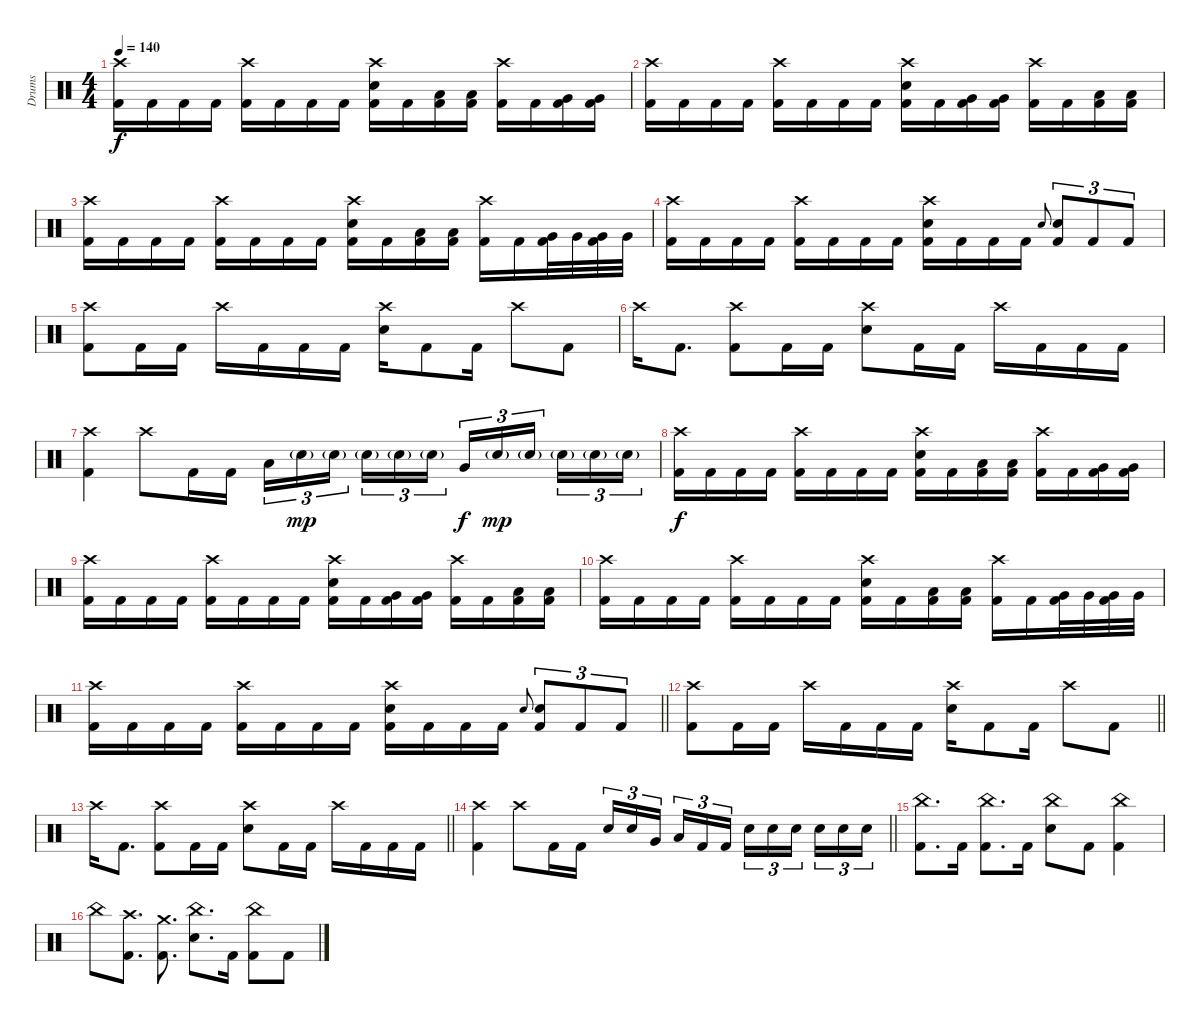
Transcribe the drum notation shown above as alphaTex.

\track ("Drums" "Drums") {instrument percussion}
\staff {score}
\articulation defaults
\ts (4 4)
\tempo 140
\clef neutral
\ks c
("Crash high (hit)" "Kick (hit) 2").16{dy f} "Kick (hit) 2".16 "Kick (hit) 2".16 "Kick (hit) 2".16 ("Crash high (hit)" "Kick (hit) 2").16 "Kick (hit) 2".16 "Kick (hit) 2".16 "Kick (hit) 2".16 ("Crash high (hit)" "Electric Snare (hit)" "Kick (hit) 2").16 "Kick (hit) 2".16 ("Low Tom (hit)" "Kick (hit) 2").16 ("Low Tom (hit)" "Kick (hit) 2").16 ("Crash high (hit)" "Kick (hit) 2").16 "Kick (hit) 2".16 ("Very Low Tom (hit)" "Kick (hit) 2").16 ("Very Low Tom (hit)" "Kick (hit) 2").16 |
("Crash high (hit)" "Kick (hit) 2").16 "Kick (hit) 2".16 "Kick (hit) 2".16 "Kick (hit) 2".16 ("Crash high (hit)" "Kick (hit) 2").16 "Kick (hit) 2".16 "Kick (hit) 2".16 "Kick (hit) 2".16 ("Crash high (hit)" "Electric Snare (hit)" "Kick (hit) 2").16 "Kick (hit) 2".16 ("Very Low Tom (hit)" "Kick (hit) 2").16 ("Very Low Tom (hit)" "Kick (hit) 2").16 ("Crash high (hit)" "Kick (hit) 2").16 "Kick (hit) 2".16 ("Low Floor Tom (hit)" "Kick (hit) 2").16 ("Low Floor Tom (hit)" "Kick (hit) 2").16 |
("Crash high (hit)" "Kick (hit) 2").16 "Kick (hit) 2".16 "Kick (hit) 2".16 "Kick (hit) 2".16 ("Crash high (hit)" "Kick (hit) 2").16 "Kick (hit) 2".16 "Kick (hit) 2".16 "Kick (hit) 2".16 ("Crash high (hit)" "Electric Snare (hit)" "Kick (hit) 2").16 "Kick (hit) 2".16 ("Low Tom (hit)" "Kick (hit) 2").16 ("Low Tom (hit)" "Kick (hit) 2").16 ("Crash high (hit)" "Kick (hit) 2").16 "Kick (hit) 2".16 ("Very Low Tom (hit)" "Kick (hit) 2").32 "Very Low Tom (hit)".32 ("Very Low Tom (hit)" "Kick (hit) 2").32 "Very Low Tom (hit)".32 |
("Crash high (hit)" "Kick (hit) 2").16 "Kick (hit) 2".16 "Kick (hit) 2".16 "Kick (hit) 2".16 ("Crash high (hit)" "Kick (hit) 2").16 "Kick (hit) 2".16 "Kick (hit) 2".16 "Kick (hit) 2".16 ("Crash high (hit)" "Electric Snare (hit)" "Kick (hit) 2").16 "Kick (hit) 2".16 "Kick (hit) 2".16 "Kick (hit) 2".16 "Electric Snare (hit)".8{gr onbeat} ("Electric Snare (hit)" "Kick (hit) 2").8{tu (3 2)} "Kick (hit) 2".8{tu (3 2)} "Kick (hit) 2".8{tu (3 2)} |
("Crash high (hit)" "Kick (hit) 2").8 "Kick (hit) 2".16 "Kick (hit) 2".16 "Crash high (hit)".16 "Kick (hit) 2".16 "Kick (hit) 2".16 "Kick (hit) 2".16 ("Crash high (hit)" "Electric Snare (hit)").16 "Kick (hit) 2".8 "Kick (hit) 2".16 "Crash high (hit)".8 "Kick (hit) 2".8 |
"Crash high (hit)".16 "Kick (hit) 2".8{d} ("Crash high (hit)" "Kick (hit) 2").8 "Kick (hit) 2".16 "Kick (hit) 2".16 ("Crash high (hit)" "Electric Snare (hit)").8 "Kick (hit) 2".16 "Kick (hit) 2".16 "Crash high (hit)".16 "Kick (hit) 2".16 "Kick (hit) 2".16 "Kick (hit) 2".16 |
("Crash high (hit)" "Kick (hit) 2").4 "Crash high (hit)".8 "Kick (hit) 2".16 "Kick (hit) 2".16 "Low Tom (hit)".16{tu (3 2)} "Electric Snare (hit)"{g}.16{tu (3 2) dy mp} "Electric Snare (hit)"{g}.16{tu (3 2) beam splitsecondary} "Electric Snare (hit)"{g}.16{tu (3 2)} "Electric Snare (hit)"{g}.16{tu (3 2)} "Electric Snare (hit)"{g}.16{tu (3 2)} "Very Low Tom (hit)".16{tu (3 2) dy f} "Electric Snare (hit)"{g}.16{tu (3 2) dy mp} "Electric Snare (hit)"{g}.16{tu (3 2) beam splitsecondary} "Electric Snare (hit)"{g}.16{tu (3 2)} "Electric Snare (hit)"{g}.16{tu (3 2)} "Electric Snare (hit)"{g}.16{tu (3 2)} |
("Crash high (hit)" "Kick (hit) 2").16{dy f} "Kick (hit) 2".16 "Kick (hit) 2".16 "Kick (hit) 2".16 ("Crash high (hit)" "Kick (hit) 2").16 "Kick (hit) 2".16 "Kick (hit) 2".16 "Kick (hit) 2".16 ("Crash high (hit)" "Electric Snare (hit)" "Kick (hit) 2").16 "Kick (hit) 2".16 ("Low Tom (hit)" "Kick (hit) 2").16 ("Low Tom (hit)" "Kick (hit) 2").16 ("Crash high (hit)" "Kick (hit) 2").16 "Kick (hit) 2".16 ("Very Low Tom (hit)" "Kick (hit) 2").16 ("Very Low Tom (hit)" "Kick (hit) 2").16 |
("Crash high (hit)" "Kick (hit) 2").16 "Kick (hit) 2".16 "Kick (hit) 2".16 "Kick (hit) 2".16 ("Crash high (hit)" "Kick (hit) 2").16 "Kick (hit) 2".16 "Kick (hit) 2".16 "Kick (hit) 2".16 ("Crash high (hit)" "Electric Snare (hit)" "Kick (hit) 2").16 "Kick (hit) 2".16 ("Very Low Tom (hit)" "Kick (hit) 2").16 ("Very Low Tom (hit)" "Kick (hit) 2").16 ("Crash high (hit)" "Kick (hit) 2").16 "Kick (hit) 2".16 ("Low Floor Tom (hit)" "Kick (hit) 2").16 ("Low Floor Tom (hit)" "Kick (hit) 2").16 |
("Crash high (hit)" "Kick (hit) 2").16 "Kick (hit) 2".16 "Kick (hit) 2".16 "Kick (hit) 2".16 ("Crash high (hit)" "Kick (hit) 2").16 "Kick (hit) 2".16 "Kick (hit) 2".16 "Kick (hit) 2".16 ("Crash high (hit)" "Electric Snare (hit)" "Kick (hit) 2").16 "Kick (hit) 2".16 ("Low Tom (hit)" "Kick (hit) 2").16 ("Low Tom (hit)" "Kick (hit) 2").16 ("Crash high (hit)" "Kick (hit) 2").16 "Kick (hit) 2".16 ("Very Low Tom (hit)" "Kick (hit) 2").32 "Very Low Tom (hit)".32 ("Very Low Tom (hit)" "Kick (hit) 2").32 "Very Low Tom (hit)".32 |
\barLineRight lightlight
("Crash high (hit)" "Kick (hit) 2").16 "Kick (hit) 2".16 "Kick (hit) 2".16 "Kick (hit) 2".16 ("Crash high (hit)" "Kick (hit) 2").16 "Kick (hit) 2".16 "Kick (hit) 2".16 "Kick (hit) 2".16 ("Crash high (hit)" "Electric Snare (hit)" "Kick (hit) 2").16 "Kick (hit) 2".16 "Kick (hit) 2".16 "Kick (hit) 2".16 "Electric Snare (hit)".8{gr onbeat} ("Electric Snare (hit)" "Kick (hit) 2").8{tu (3 2)} "Kick (hit) 2".8{tu (3 2)} "Kick (hit) 2".8{tu (3 2)} |
\barLineRight lightlight
("Crash high (hit)" "Kick (hit) 2").8 "Kick (hit) 2".16 "Kick (hit) 2".16 "Crash high (hit)".16 "Kick (hit) 2".16 "Kick (hit) 2".16 "Kick (hit) 2".16 ("Crash high (hit)" "Electric Snare (hit)").16 "Kick (hit) 2".8 "Kick (hit) 2".16 "Crash high (hit)".8 "Kick (hit) 2".8 |
\barLineRight lightlight "Crash high (hit)".16 "Kick (hit) 2".8{d}
("Crash high (hit)" "Kick (hit) 2").8 "Kick (hit) 2".16 "Kick (hit) 2".16 ("Crash high (hit)" "Electric Snare (hit)").8 "Kick (hit) 2".16 "Kick (hit) 2".16 "Crash high (hit)".16 "Kick (hit) 2".16 "Kick (hit) 2".16 "Kick (hit) 2".16 |
\barLineRight lightlight
("Crash high (hit)" "Kick (hit) 2").4 "Crash high (hit)".8 "Kick (hit) 2".16 "Kick (hit) 2".16 "Electric Snare (hit)".16{tu (3 2)} "Electric Snare (hit)".16{tu (3 2)} "Very Low Tom (hit)".16{tu (3 2) beam splitsecondary} "Low Tom (hit)".16{tu (3 2)} "Kick (hit) 2".16{tu (3 2)} "Kick (hit) 2".16{tu (3 2)} "Electric Snare (hit)".16{tu (3 2)} "Electric Snare (hit)".16{tu (3 2)} "Electric Snare (hit)".16{tu (3 2) beam splitsecondary} "Electric Snare (hit)".16{tu (3 2)} "Electric Snare (hit)".16{tu (3 2)} "Electric Snare (hit)".16{tu (3 2)} |
("China (hit)" "Kick (hit) 2").8{d} "Kick (hit) 2".16 ("China (hit)" "Kick (hit) 2").8{d} "Kick (hit) 2".16 ("China (hit)" "Electric Snare (hit)").8 "Kick (hit) 2".8 ("China (hit)" "Kick (hit) 2").4 |
"China (hit)".8 ("Crash high (hit)" "Kick (hit) 2").8{d} ("Crash medium (hit)" "Kick (hit) 2").8{d} ("China (hit)" "Electric Snare (hit)").8{d} "Kick (hit) 2".16 ("China (hit)" "Kick (hit) 2").8 "Kick (hit) 2".8
